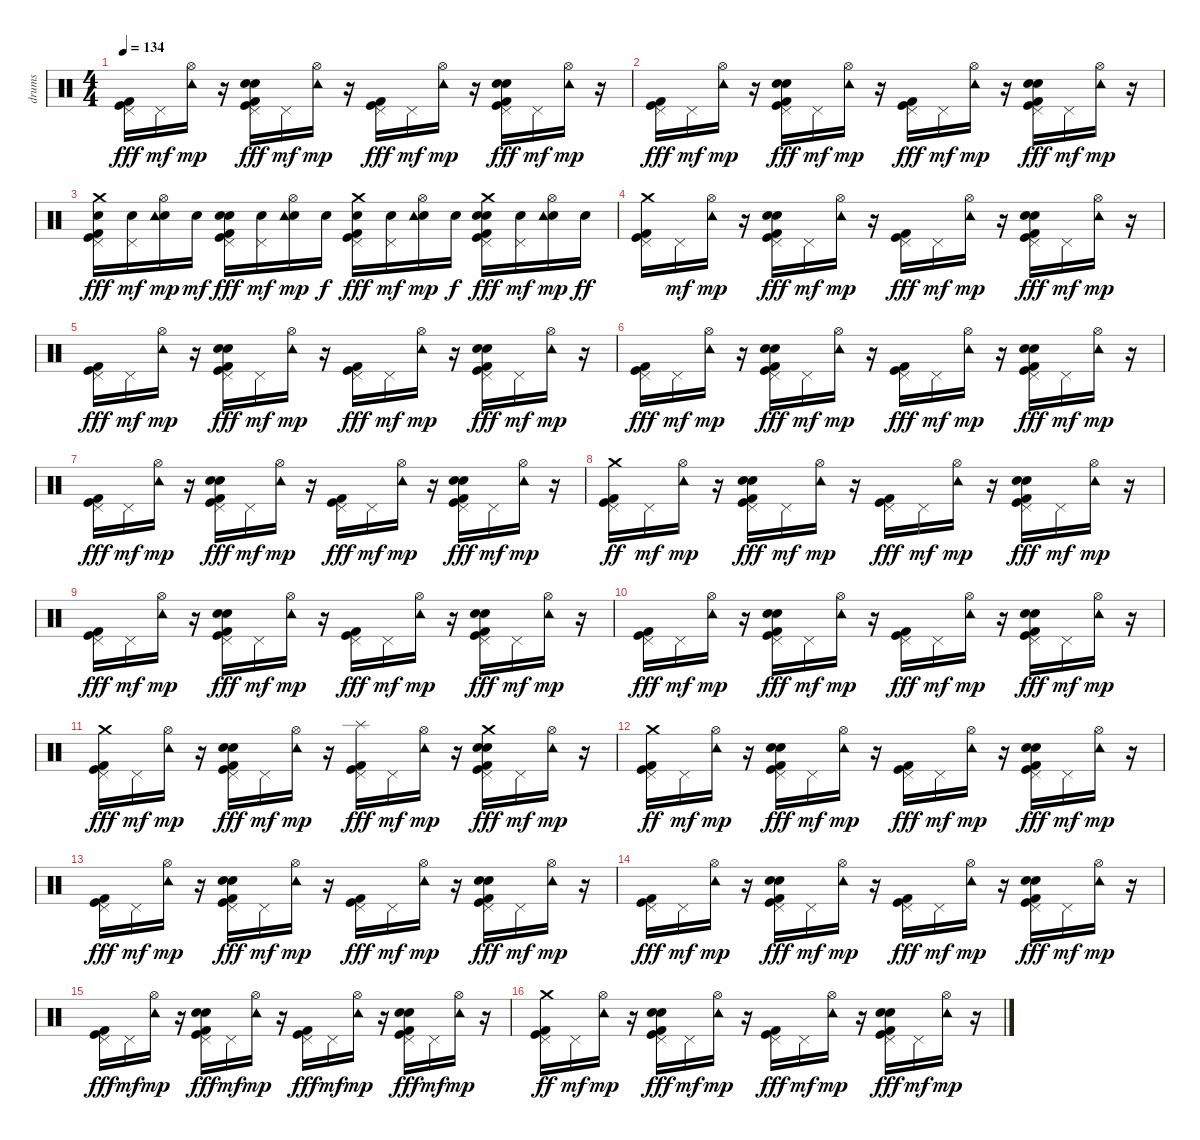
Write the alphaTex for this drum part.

\track ("drums" "drums") {instrument percussion}
\staff {score}
\articulation defaults
\ts (4 4)
\tempo 134
\clef neutral
\ks c
("Kick (hit)" "Kick (hit) 2" "Pedal Hi-Hat (hit)").16{dy fff} "Pedal Hi-Hat (hit)".16{dy mf} ("Hi-Hat (open)" "Tambourine (hit)").16{dy mp} r.16 ("Electric Snare (hit)" "Kick (hit)" "Kick (hit) 2" "Hand Clap (hit)" "Pedal Hi-Hat (hit)").16{dy fff} "Pedal Hi-Hat (hit)".16{dy mf} ("Hi-Hat (open)" "Tambourine (hit)").16{dy mp} r.16 ("Kick (hit)" "Kick (hit) 2" "Pedal Hi-Hat (hit)").16{dy fff} "Pedal Hi-Hat (hit)".16{dy mf} ("Hi-Hat (open)" "Tambourine (hit)").16{dy mp} r.16 ("Electric Snare (hit)" "Kick (hit)" "Kick (hit) 2" "Hand Clap (hit)" "Pedal Hi-Hat (hit)").16{dy fff} "Pedal Hi-Hat (hit)".16{dy mf} ("Hi-Hat (open)" "Tambourine (hit)").16{dy mp} r.16 |
("Kick (hit)" "Kick (hit) 2" "Pedal Hi-Hat (hit)").16{dy fff} "Pedal Hi-Hat (hit)".16{dy mf} ("Hi-Hat (open)" "Tambourine (hit)").16{dy mp} r.16 ("Electric Snare (hit)" "Kick (hit)" "Kick (hit) 2" "Hand Clap (hit)" "Pedal Hi-Hat (hit)").16{dy fff} "Pedal Hi-Hat (hit)".16{dy mf} ("Hi-Hat (open)" "Tambourine (hit)").16{dy mp} r.16 ("Kick (hit)" "Kick (hit) 2" "Pedal Hi-Hat (hit)").16{dy fff} "Pedal Hi-Hat (hit)".16{dy mf} ("Hi-Hat (open)" "Tambourine (hit)").16{dy mp} r.16 ("Electric Snare (hit)" "Kick (hit)" "Kick (hit) 2" "Hand Clap (hit)" "Pedal Hi-Hat (hit)").16{dy fff} "Pedal Hi-Hat (hit)".16{dy mf} ("Hi-Hat (open)" "Tambourine (hit)").16{dy mp} r.16 |
("Crash medium (hit)" "Electric Snare (hit)" "Kick (hit)" "Kick (hit) 2" "Pedal Hi-Hat (hit)").16{dy fff} ("Electric Snare (hit)" "Pedal Hi-Hat (hit)").16{dy mf} ("Electric Snare (hit)" "Hi-Hat (open)" "Tambourine (hit)").16{dy mp} "Electric Snare (hit)".16{dy mf} ("Electric Snare (hit)" "Kick (hit)" "Kick (hit) 2" "Hand Clap (hit)" "Pedal Hi-Hat (hit)").16{dy fff} ("Electric Snare (hit)" "Pedal Hi-Hat (hit)").16{dy mf} ("Electric Snare (hit)" "Hi-Hat (open)" "Tambourine (hit)").16{dy mp} "Electric Snare (hit)".16{dy f} ("Crash medium (hit)" "Electric Snare (hit)" "Kick (hit)" "Kick (hit) 2" "Pedal Hi-Hat (hit)").16{dy fff} ("Electric Snare (hit)" "Pedal Hi-Hat (hit)").16{dy mf} ("Electric Snare (hit)" "Hi-Hat (open)" "Tambourine (hit)").16{dy mp} "Electric Snare (hit)".16{dy f} ("Crash medium (hit)" "Electric Snare (hit)" "Kick (hit)" "Kick (hit) 2" "Hand Clap (hit)" "Pedal Hi-Hat (hit)").16{dy fff} ("Electric Snare (hit)" "Pedal Hi-Hat (hit)").16{dy mf} ("Electric Snare (hit)" "Hi-Hat (open)" "Tambourine (hit)").16{dy mp} "Electric Snare (hit)".16{dy ff} |
("Kick (hit)" "Kick (hit) 2" "Pedal Hi-Hat (hit)" "Crash medium (hit)").16 "Pedal Hi-Hat (hit)".16{dy mf} ("Hi-Hat (open)" "Tambourine (hit)").16{dy mp} r.16 ("Electric Snare (hit)" "Kick (hit)" "Kick (hit) 2" "Hand Clap (hit)" "Pedal Hi-Hat (hit)").16{dy fff} "Pedal Hi-Hat (hit)".16{dy mf} ("Hi-Hat (open)" "Tambourine (hit)").16{dy mp} r.16 ("Kick (hit)" "Kick (hit) 2" "Pedal Hi-Hat (hit)").16{dy fff} "Pedal Hi-Hat (hit)".16{dy mf} ("Hi-Hat (open)" "Tambourine (hit)").16{dy mp} r.16 ("Electric Snare (hit)" "Kick (hit)" "Kick (hit) 2" "Hand Clap (hit)" "Pedal Hi-Hat (hit)").16{dy fff} "Pedal Hi-Hat (hit)".16{dy mf} ("Hi-Hat (open)" "Tambourine (hit)").16{dy mp} r.16 |
("Kick (hit)" "Kick (hit) 2" "Pedal Hi-Hat (hit)").16{dy fff} "Pedal Hi-Hat (hit)".16{dy mf} ("Hi-Hat (open)" "Tambourine (hit)").16{dy mp} r.16 ("Electric Snare (hit)" "Kick (hit)" "Kick (hit) 2" "Hand Clap (hit)" "Pedal Hi-Hat (hit)").16{dy fff} "Pedal Hi-Hat (hit)".16{dy mf} ("Hi-Hat (open)" "Tambourine (hit)").16{dy mp} r.16 ("Kick (hit)" "Kick (hit) 2" "Pedal Hi-Hat (hit)").16{dy fff} "Pedal Hi-Hat (hit)".16{dy mf} ("Hi-Hat (open)" "Tambourine (hit)").16{dy mp} r.16 ("Electric Snare (hit)" "Kick (hit)" "Kick (hit) 2" "Hand Clap (hit)" "Pedal Hi-Hat (hit)").16{dy fff} "Pedal Hi-Hat (hit)".16{dy mf} ("Hi-Hat (open)" "Tambourine (hit)").16{dy mp} r.16 |
("Kick (hit)" "Kick (hit) 2" "Pedal Hi-Hat (hit)").16{dy fff} "Pedal Hi-Hat (hit)".16{dy mf} ("Hi-Hat (open)" "Tambourine (hit)").16{dy mp} r.16 ("Electric Snare (hit)" "Kick (hit)" "Kick (hit) 2" "Hand Clap (hit)" "Pedal Hi-Hat (hit)").16{dy fff} "Pedal Hi-Hat (hit)".16{dy mf} ("Hi-Hat (open)" "Tambourine (hit)").16{dy mp} r.16 ("Kick (hit)" "Kick (hit) 2" "Pedal Hi-Hat (hit)").16{dy fff} "Pedal Hi-Hat (hit)".16{dy mf} ("Hi-Hat (open)" "Tambourine (hit)").16{dy mp} r.16 ("Electric Snare (hit)" "Kick (hit)" "Kick (hit) 2" "Hand Clap (hit)" "Pedal Hi-Hat (hit)").16{dy fff} "Pedal Hi-Hat (hit)".16{dy mf} ("Hi-Hat (open)" "Tambourine (hit)").16{dy mp} r.16 |
("Kick (hit)" "Kick (hit) 2" "Pedal Hi-Hat (hit)").16{dy fff} "Pedal Hi-Hat (hit)".16{dy mf} ("Hi-Hat (open)" "Tambourine (hit)").16{dy mp} r.16 ("Electric Snare (hit)" "Kick (hit)" "Kick (hit) 2" "Hand Clap (hit)" "Pedal Hi-Hat (hit)").16{dy fff} "Pedal Hi-Hat (hit)".16{dy mf} ("Hi-Hat (open)" "Tambourine (hit)").16{dy mp} r.16 ("Kick (hit)" "Kick (hit) 2" "Pedal Hi-Hat (hit)").16{dy fff} "Pedal Hi-Hat (hit)".16{dy mf} ("Hi-Hat (open)" "Tambourine (hit)").16{dy mp} r.16 ("Electric Snare (hit)" "Kick (hit)" "Kick (hit) 2" "Hand Clap (hit)" "Pedal Hi-Hat (hit)").16{dy fff} "Pedal Hi-Hat (hit)".16{dy mf} ("Hi-Hat (open)" "Tambourine (hit)").16{dy mp} r.16 |
("Kick (hit)" "Kick (hit) 2" "Pedal Hi-Hat (hit)" "Crash medium (hit)").16{dy ff} "Pedal Hi-Hat (hit)".16{dy mf} ("Hi-Hat (open)" "Tambourine (hit)").16{dy mp} r.16 ("Electric Snare (hit)" "Kick (hit)" "Kick (hit) 2" "Hand Clap (hit)" "Pedal Hi-Hat (hit)").16{dy fff} "Pedal Hi-Hat (hit)".16{dy mf} ("Hi-Hat (open)" "Tambourine (hit)").16{dy mp} r.16 ("Kick (hit)" "Kick (hit) 2" "Pedal Hi-Hat (hit)").16{dy fff} "Pedal Hi-Hat (hit)".16{dy mf} ("Hi-Hat (open)" "Tambourine (hit)").16{dy mp} r.16 ("Electric Snare (hit)" "Kick (hit)" "Kick (hit) 2" "Hand Clap (hit)" "Pedal Hi-Hat (hit)").16{dy fff} "Pedal Hi-Hat (hit)".16{dy mf} ("Hi-Hat (open)" "Tambourine (hit)").16{dy mp} r.16 |
("Kick (hit)" "Kick (hit) 2" "Pedal Hi-Hat (hit)").16{dy fff} "Pedal Hi-Hat (hit)".16{dy mf} ("Hi-Hat (open)" "Tambourine (hit)").16{dy mp} r.16 ("Electric Snare (hit)" "Kick (hit)" "Kick (hit) 2" "Hand Clap (hit)" "Pedal Hi-Hat (hit)").16{dy fff} "Pedal Hi-Hat (hit)".16{dy mf} ("Hi-Hat (open)" "Tambourine (hit)").16{dy mp} r.16 ("Kick (hit)" "Kick (hit) 2" "Pedal Hi-Hat (hit)").16{dy fff} "Pedal Hi-Hat (hit)".16{dy mf} ("Hi-Hat (open)" "Tambourine (hit)").16{dy mp} r.16 ("Electric Snare (hit)" "Kick (hit)" "Kick (hit) 2" "Hand Clap (hit)" "Pedal Hi-Hat (hit)").16{dy fff} "Pedal Hi-Hat (hit)".16{dy mf} ("Hi-Hat (open)" "Tambourine (hit)").16{dy mp} r.16 |
("Kick (hit)" "Kick (hit) 2" "Pedal Hi-Hat (hit)").16{dy fff} "Pedal Hi-Hat (hit)".16{dy mf} ("Hi-Hat (open)" "Tambourine (hit)").16{dy mp} r.16 ("Electric Snare (hit)" "Kick (hit)" "Kick (hit) 2" "Hand Clap (hit)" "Pedal Hi-Hat (hit)").16{dy fff} "Pedal Hi-Hat (hit)".16{dy mf} ("Hi-Hat (open)" "Tambourine (hit)").16{dy mp} r.16 ("Kick (hit)" "Kick (hit) 2" "Pedal Hi-Hat (hit)").16{dy fff} "Pedal Hi-Hat (hit)".16{dy mf} ("Hi-Hat (open)" "Tambourine (hit)").16{dy mp} r.16 ("Electric Snare (hit)" "Kick (hit)" "Kick (hit) 2" "Hand Clap (hit)" "Pedal Hi-Hat (hit)").16{dy fff} "Pedal Hi-Hat (hit)".16{dy mf} ("Hi-Hat (open)" "Tambourine (hit)").16{dy mp} r.16 |
("Crash medium (hit)" "Kick (hit)" "Kick (hit) 2" "Pedal Hi-Hat (hit)").16{dy fff} "Pedal Hi-Hat (hit)".16{dy mf} ("Hi-Hat (open)" "Tambourine (hit)").16{dy mp} r.16 ("Electric Snare (hit)" "Kick (hit)" "Kick (hit) 2" "Hand Clap (hit)" "Pedal Hi-Hat (hit)").16{dy fff} "Pedal Hi-Hat (hit)".16{dy mf} ("Hi-Hat (open)" "Tambourine (hit)").16{dy mp} r.16 ("Splash (hit)" "Kick (hit)" "Kick (hit) 2" "Pedal Hi-Hat (hit)").16{dy fff} "Pedal Hi-Hat (hit)".16{dy mf} ("Hi-Hat (open)" "Tambourine (hit)").16{dy mp} r.16 ("Crash medium (hit)" "Electric Snare (hit)" "Kick (hit)" "Kick (hit) 2" "Hand Clap (hit)" "Pedal Hi-Hat (hit)").16{dy fff} "Pedal Hi-Hat (hit)".16{dy mf} ("Hi-Hat (open)" "Tambourine (hit)").16{dy mp} r.16 |
("Kick (hit)" "Kick (hit) 2" "Pedal Hi-Hat (hit)" "Crash medium (hit)").16{dy ff} "Pedal Hi-Hat (hit)".16{dy mf} ("Hi-Hat (open)" "Tambourine (hit)").16{dy mp} r.16 ("Electric Snare (hit)" "Kick (hit)" "Kick (hit) 2" "Hand Clap (hit)" "Pedal Hi-Hat (hit)").16{dy fff} "Pedal Hi-Hat (hit)".16{dy mf} ("Hi-Hat (open)" "Tambourine (hit)").16{dy mp} r.16 ("Kick (hit)" "Kick (hit) 2" "Pedal Hi-Hat (hit)").16{dy fff} "Pedal Hi-Hat (hit)".16{dy mf} ("Hi-Hat (open)" "Tambourine (hit)").16{dy mp} r.16 ("Electric Snare (hit)" "Kick (hit)" "Kick (hit) 2" "Hand Clap (hit)" "Pedal Hi-Hat (hit)").16{dy fff} "Pedal Hi-Hat (hit)".16{dy mf} ("Hi-Hat (open)" "Tambourine (hit)").16{dy mp} r.16 |
("Kick (hit)" "Kick (hit) 2" "Pedal Hi-Hat (hit)").16{dy fff} "Pedal Hi-Hat (hit)".16{dy mf} ("Hi-Hat (open)" "Tambourine (hit)").16{dy mp} r.16 ("Electric Snare (hit)" "Kick (hit)" "Kick (hit) 2" "Hand Clap (hit)" "Pedal Hi-Hat (hit)").16{dy fff} "Pedal Hi-Hat (hit)".16{dy mf} ("Hi-Hat (open)" "Tambourine (hit)").16{dy mp} r.16 ("Kick (hit)" "Kick (hit) 2" "Pedal Hi-Hat (hit)").16{dy fff} "Pedal Hi-Hat (hit)".16{dy mf} ("Hi-Hat (open)" "Tambourine (hit)").16{dy mp} r.16 ("Electric Snare (hit)" "Kick (hit)" "Kick (hit) 2" "Hand Clap (hit)" "Pedal Hi-Hat (hit)").16{dy fff} "Pedal Hi-Hat (hit)".16{dy mf} ("Hi-Hat (open)" "Tambourine (hit)").16{dy mp} r.16 |
("Kick (hit)" "Kick (hit) 2" "Pedal Hi-Hat (hit)").16{dy fff} "Pedal Hi-Hat (hit)".16{dy mf} ("Hi-Hat (open)" "Tambourine (hit)").16{dy mp} r.16 ("Electric Snare (hit)" "Kick (hit)" "Kick (hit) 2" "Hand Clap (hit)" "Pedal Hi-Hat (hit)").16{dy fff} "Pedal Hi-Hat (hit)".16{dy mf} ("Hi-Hat (open)" "Tambourine (hit)").16{dy mp} r.16 ("Kick (hit)" "Kick (hit) 2" "Pedal Hi-Hat (hit)").16{dy fff} "Pedal Hi-Hat (hit)".16{dy mf} ("Hi-Hat (open)" "Tambourine (hit)").16{dy mp} r.16 ("Electric Snare (hit)" "Kick (hit)" "Kick (hit) 2" "Hand Clap (hit)" "Pedal Hi-Hat (hit)").16{dy fff} "Pedal Hi-Hat (hit)".16{dy mf} ("Hi-Hat (open)" "Tambourine (hit)").16{dy mp} r.16 |
("Kick (hit)" "Kick (hit) 2" "Pedal Hi-Hat (hit)").16{dy fff} "Pedal Hi-Hat (hit)".16{dy mf} ("Hi-Hat (open)" "Tambourine (hit)").16{dy mp} r.16 ("Electric Snare (hit)" "Kick (hit)" "Kick (hit) 2" "Hand Clap (hit)" "Pedal Hi-Hat (hit)").16{dy fff} "Pedal Hi-Hat (hit)".16{dy mf} ("Hi-Hat (open)" "Tambourine (hit)").16{dy mp} r.16 ("Kick (hit)" "Kick (hit) 2" "Pedal Hi-Hat (hit)").16{dy fff} "Pedal Hi-Hat (hit)".16{dy mf} ("Hi-Hat (open)" "Tambourine (hit)").16{dy mp} r.16 ("Electric Snare (hit)" "Kick (hit)" "Kick (hit) 2" "Hand Clap (hit)" "Pedal Hi-Hat (hit)").16{dy fff} "Pedal Hi-Hat (hit)".16{dy mf} ("Hi-Hat (open)" "Tambourine (hit)").16{dy mp} r.16 |
("Kick (hit)" "Kick (hit) 2" "Pedal Hi-Hat (hit)" "Crash medium (hit)").16{dy ff} "Pedal Hi-Hat (hit)".16{dy mf} ("Hi-Hat (open)" "Tambourine (hit)").16{dy mp} r.16 ("Electric Snare (hit)" "Kick (hit)" "Kick (hit) 2" "Hand Clap (hit)" "Pedal Hi-Hat (hit)").16{dy fff} "Pedal Hi-Hat (hit)".16{dy mf} ("Hi-Hat (open)" "Tambourine (hit)").16{dy mp} r.16 ("Kick (hit)" "Kick (hit) 2" "Pedal Hi-Hat (hit)").16{dy fff} "Pedal Hi-Hat (hit)".16{dy mf} ("Hi-Hat (open)" "Tambourine (hit)").16{dy mp} r.16 ("Electric Snare (hit)" "Kick (hit)" "Kick (hit) 2" "Hand Clap (hit)" "Pedal Hi-Hat (hit)").16{dy fff} "Pedal Hi-Hat (hit)".16{dy mf} ("Hi-Hat (open)" "Tambourine (hit)").16{dy mp} r.16
